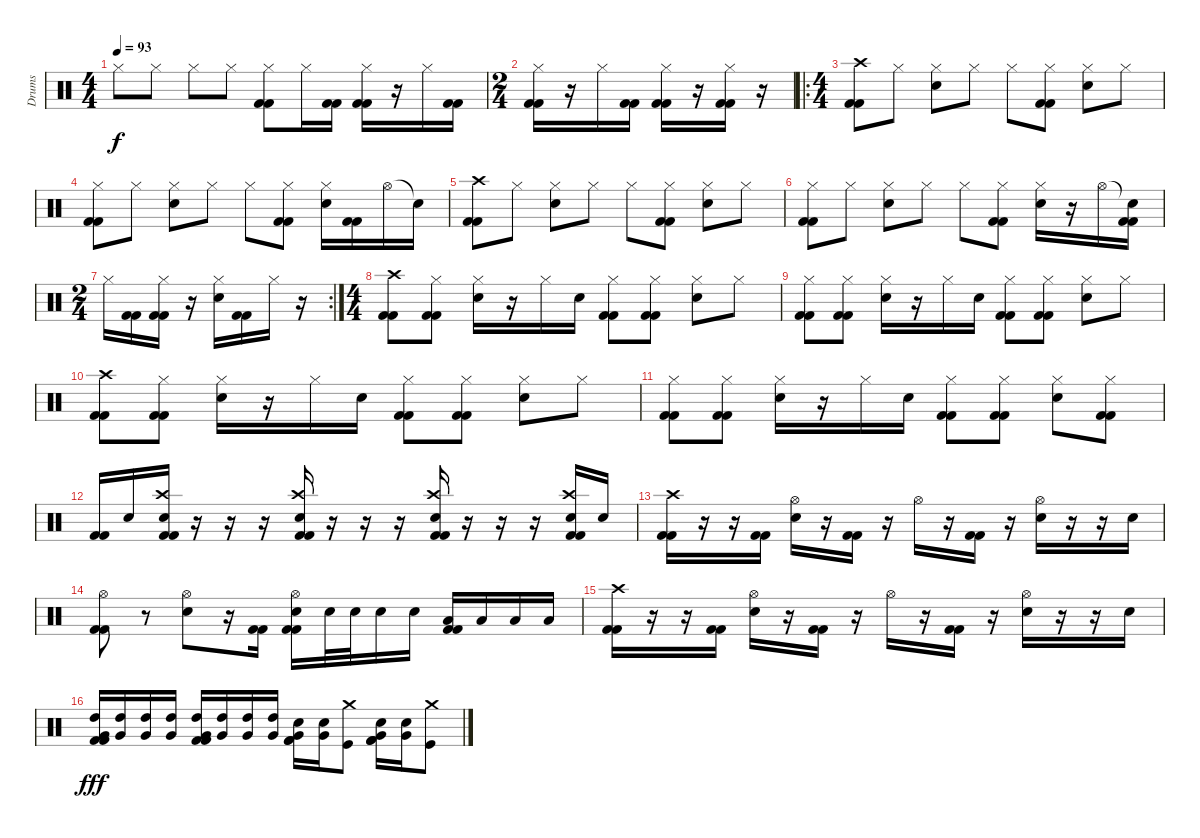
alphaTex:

\track ("Drums" "Drums") {instrument percussion}
\staff {score}
\articulation defaults
\ts (4 4)
\tempo 93
\clef neutral
\ks c "Hi-Hat (closed)".8{dy f} "Hi-Hat (closed)".8 "Hi-Hat (closed)".8 "Hi-Hat (closed)".8
("Hi-Hat (closed)" "Kick (hit) 2" "Kick (hit) 2").8 "Hi-Hat (closed)".16 ("Kick (hit) 2" "Kick (hit) 2").16 ("Hi-Hat (closed)" "Kick (hit) 2" "Kick (hit) 2").16 r.16 "Hi-Hat (closed)".16 ("Kick (hit) 2" "Kick (hit) 2").16 |
\ts (2 4)
("Hi-Hat (closed)" "Kick (hit) 2" "Kick (hit) 2").16 r.16 "Hi-Hat (closed)".16 ("Kick (hit) 2" "Kick (hit) 2").16 ("Hi-Hat (closed)" "Kick (hit) 2" "Kick (hit) 2").16 r.16 ("Hi-Hat (closed)" "Kick (hit) 2" "Kick (hit) 2").16 r.16 |
\ro
\ts (4 4)
("Crash high (hit)" "Kick (hit) 2" "Kick (hit) 2").8 "Hi-Hat (closed)".8 ("Hi-Hat (closed)" "Electric Snare (hit)").8 "Hi-Hat (closed)".8 "Hi-Hat (closed)".8 ("Hi-Hat (closed)" "Kick (hit) 2" "Kick (hit) 2").8 ("Hi-Hat (closed)" "Electric Snare (hit)").8 "Hi-Hat (closed)".8 |
("Hi-Hat (closed)" "Kick (hit) 2" "Kick (hit) 2").8 "Hi-Hat (closed)".8 ("Hi-Hat (closed)" "Electric Snare (hit)").8 "Hi-Hat (closed)".8 "Hi-Hat (closed)".8 ("Hi-Hat (closed)" "Kick (hit) 2" "Kick (hit) 2").8 ("Hi-Hat (closed)" "Electric Snare (hit)").16 ("Kick (hit) 2" "Kick (hit) 2").16 "Hi-Hat (open)".16 "Snare (hit)"{t}.16 |
("Crash high (hit)" "Kick (hit) 2" "Kick (hit) 2").8 "Hi-Hat (closed)".8 ("Hi-Hat (closed)" "Electric Snare (hit)").8 "Hi-Hat (closed)".8 "Hi-Hat (closed)".8 ("Hi-Hat (closed)" "Kick (hit) 2" "Kick (hit) 2").8 ("Hi-Hat (closed)" "Electric Snare (hit)").8 "Hi-Hat (closed)".8 |
("Hi-Hat (closed)" "Kick (hit) 2" "Kick (hit) 2").8 "Hi-Hat (closed)".8 ("Hi-Hat (closed)" "Electric Snare (hit)").8 "Hi-Hat (closed)".8 "Hi-Hat (closed)".8 ("Hi-Hat (closed)" "Kick (hit) 2" "Kick (hit) 2").8 ("Hi-Hat (closed)" "Electric Snare (hit)").16 r.16 "Hi-Hat (open)".16 ("Snare (hit)"{t} "Kick (hit) 2" "Kick (hit) 2").16 |
\rc 2
\ts (2 4)
"Hi-Hat (closed)".16 ("Kick (hit) 2" "Kick (hit) 2").16 ("Hi-Hat (closed)" "Kick (hit) 2" "Kick (hit) 2").16 r.16 ("Hi-Hat (closed)" "Electric Snare (hit)").16 ("Kick (hit) 2" "Kick (hit) 2").16 "Hi-Hat (closed)".16 r.16 |
\ts (4 4)
("Crash high (hit)" "Kick (hit) 2" "Kick (hit) 2").8 ("Hi-Hat (closed)" "Kick (hit) 2" "Kick (hit) 2").8 ("Hi-Hat (closed)" "Electric Snare (hit)").16 r.16 "Hi-Hat (closed)".16 "Electric Snare (hit)".16 ("Hi-Hat (closed)" "Kick (hit) 2" "Kick (hit) 2").8 ("Hi-Hat (closed)" "Kick (hit) 2" "Kick (hit) 2").8 ("Hi-Hat (closed)" "Electric Snare (hit)").8 "Hi-Hat (closed)".8 |
("Hi-Hat (closed)" "Kick (hit) 2" "Kick (hit) 2").8 ("Hi-Hat (closed)" "Kick (hit) 2" "Kick (hit) 2").8 ("Hi-Hat (closed)" "Electric Snare (hit)").16 r.16 "Hi-Hat (closed)".16 "Electric Snare (hit)".16 ("Hi-Hat (closed)" "Kick (hit) 2" "Kick (hit) 2").8 ("Hi-Hat (closed)" "Kick (hit) 2" "Kick (hit) 2").8 ("Hi-Hat (closed)" "Electric Snare (hit)").8 "Hi-Hat (closed)".8 |
("Crash high (hit)" "Kick (hit) 2" "Kick (hit) 2").8 ("Hi-Hat (closed)" "Kick (hit) 2" "Kick (hit) 2").8 ("Hi-Hat (closed)" "Electric Snare (hit)").16 r.16 "Hi-Hat (closed)".16 "Electric Snare (hit)".16 ("Hi-Hat (closed)" "Kick (hit) 2" "Kick (hit) 2").8 ("Hi-Hat (closed)" "Kick (hit) 2" "Kick (hit) 2").8 ("Hi-Hat (closed)" "Electric Snare (hit)").8 "Hi-Hat (closed)".8 |
("Hi-Hat (closed)" "Kick (hit) 2" "Kick (hit) 2").8 ("Hi-Hat (closed)" "Kick (hit) 2" "Kick (hit) 2").8 ("Hi-Hat (closed)" "Electric Snare (hit)").16 r.16 "Hi-Hat (closed)".16 "Electric Snare (hit)".16 ("Hi-Hat (closed)" "Kick (hit) 2" "Kick (hit) 2").8 ("Hi-Hat (closed)" "Kick (hit) 2" "Kick (hit) 2").8 ("Hi-Hat (closed)" "Electric Snare (hit)").8 ("Hi-Hat (closed)" "Kick (hit) 2" "Kick (hit) 2").8 |
("Kick (hit) 2" "Kick (hit) 2").16 "Electric Snare (hit)".16 ("Crash high (hit)" "Electric Snare (hit)" "Kick (hit) 2" "Kick (hit) 2").16 r.16 r.16 r.16 ("Crash high (hit)" "Electric Snare (hit)" "Kick (hit) 2" "Kick (hit) 2").16 r.16 r.16 r.16 ("Crash high (hit)" "Electric Snare (hit)" "Kick (hit) 2" "Kick (hit) 2").16 r.16 r.16 r.16 ("Crash high (hit)" "Electric Snare (hit)" "Kick (hit) 2" "Kick (hit) 2").16 "Electric Snare (hit)".16 |
("Crash high (hit)" "Kick (hit) 2" "Kick (hit) 2").16 r.16 r.16 ("Kick (hit) 2" "Kick (hit) 2").16 ("Hi-Hat (open)" "Electric Snare (hit)").16 r.16 ("Kick (hit) 2" "Kick (hit) 2").16 r.16 "Hi-Hat (open)".16 r.16 ("Kick (hit) 2" "Kick (hit) 2").16 r.16 ("Hi-Hat (open)" "Electric Snare (hit)").16 r.16 r.16 "Electric Snare (hit)".16 |
("Hi-Hat (open)" "Kick (hit) 2" "Kick (hit) 2").8 r.8 ("Hi-Hat (open)" "Electric Snare (hit)").8 r.16 ("Kick (hit) 2" "Kick (hit) 2").16 ("Hi-Hat (open)" "Electric Snare (hit)" "Kick (hit) 2" "Kick (hit) 2").16 "Electric Snare (hit)".32 "Electric Snare (hit)".32 "Electric Snare (hit)".16 "Electric Snare (hit)".16 ("Low Tom (hit)" "Kick (hit) 2" "Kick (hit) 2").16 "Low Tom (hit)".16 "Low Tom (hit)".16 "Low Tom (hit)".16 |
("Crash high (hit)" "Kick (hit) 2" "Kick (hit) 2").16 r.16 r.16 ("Kick (hit) 2" "Kick (hit) 2").16 ("Hi-Hat (open)" "Electric Snare (hit)").16 r.16 ("Kick (hit) 2" "Kick (hit) 2").16 r.16 "Hi-Hat (open)".16 r.16 ("Kick (hit) 2" "Kick (hit) 2").16 r.16 ("Hi-Hat (open)" "Electric Snare (hit)").16 r.16 r.16 "Electric Snare (hit)".16 |
("High Tom (hit)" "Very Low Tom (hit)" "Kick (hit) 2" "Kick (hit) 2").16{dy fff} ("High Tom (hit)" "Very Low Tom (hit)").16 ("High Tom (hit)" "Very Low Tom (hit)").16 ("High Tom (hit)" "Very Low Tom (hit)").16 ("High Tom (hit)" "Very Low Tom (hit)" "Kick (hit) 2" "Kick (hit) 2").16 ("High Tom (hit)" "Very Low Tom (hit)").16 ("High Tom (hit)" "Very Low Tom (hit)").16 ("High Tom (hit)" "Very Low Tom (hit)").16 ("Snare (hit) 2" "Very Low Tom (hit)" "Kick (hit) 2" "Kick (hit) 2").16 ("Snare (hit) 2" "Very Low Tom (hit)").16 ("Kick (hit)" "Crash medium (hit)").8 ("Snare (hit) 2" "Very Low Tom (hit)" "Kick (hit) 2" "Kick (hit) 2").16 ("Snare (hit) 2" "Very Low Tom (hit)").16 ("Crash medium (hit)" "Kick (hit)").8
